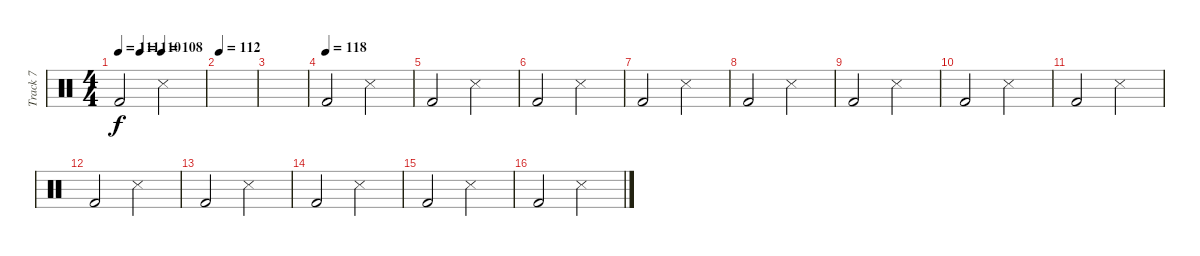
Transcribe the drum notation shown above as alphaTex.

\track ("Track 7" "Track 7") {instrument percussion}
\staff {score}
\articulation defaults
\ts (4 4)
\tempo 111
\tempo (110 0.25)
\tempo (108 0.5)
\clef neutral
\ks c "Kick (hit) 2".2{dy f} "Snare (side stick) 3".2
|
\tempo 112
|
|
\tempo (118)
"Kick (hit) 2".2 "Snare (side stick) 3".2 |
"Kick (hit) 2".2 "Snare (side stick) 3".2 |
"Kick (hit) 2".2 "Snare (side stick) 3".2 |
"Kick (hit) 2".2 "Snare (side stick) 3".2 |
"Kick (hit) 2".2 "Snare (side stick) 3".2 |
"Kick (hit) 2".2 "Snare (side stick) 3".2 |
"Kick (hit) 2".2 "Snare (side stick) 3".2 |
"Kick (hit) 2".2 "Snare (side stick) 3".2 |
"Kick (hit) 2".2 "Snare (side stick) 3".2 |
"Kick (hit) 2".2 "Snare (side stick) 3".2 |
"Kick (hit) 2".2 "Snare (side stick) 3".2 |
"Kick (hit) 2".2 "Snare (side stick) 3".2 |
"Kick (hit) 2".2 "Snare (side stick) 3".2
